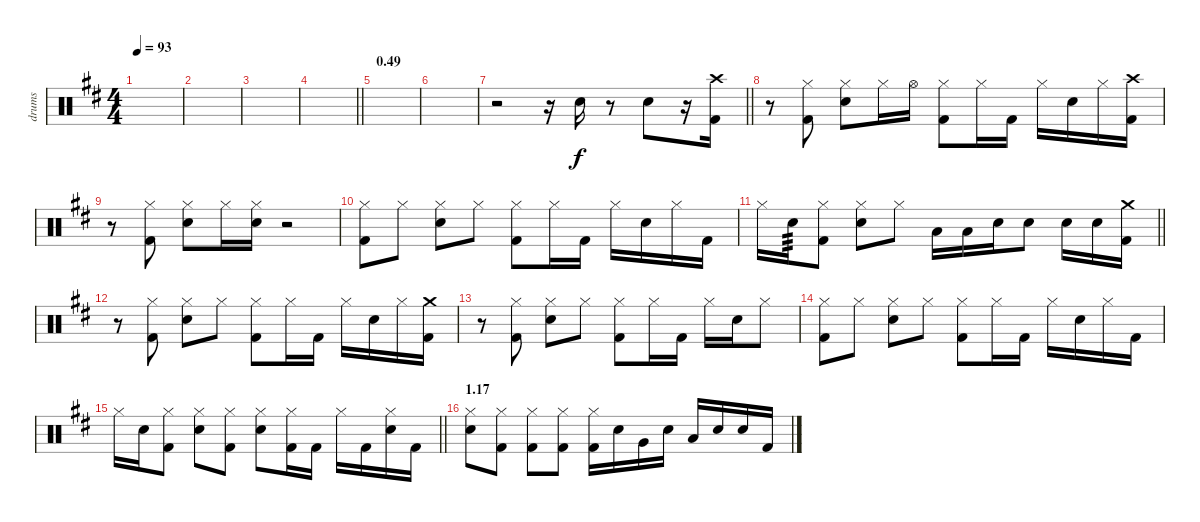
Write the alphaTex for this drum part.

\track ("drums" "drums") {instrument percussion}
\staff {score}
\articulation defaults
\ts (4 4)
\tempo 93
\clef neutral
\ks d
|
|
|
\barLineRight lightlight
|
\section ("" "0.49")
|
|
\barLineRight lightlight
r.2 r.16 "Electric Snare (hit)".16 r.8 "Electric Snare (hit)".8 r.16 ("Crash high (hit)" "Kick (hit) 2").16 |
r.8 ("Hi-Hat (closed)" "Kick (hit) 2").8 ("Hi-Hat (closed)" "Electric Snare (hit)").8 "Hi-Hat (closed)".16 "Hi-Hat (open)".16 ("Hi-Hat (closed)" "Kick (hit) 2").8 "Hi-Hat (closed)".16 "Kick (hit) 2".16 "Hi-Hat (closed)".16 "Electric Snare (hit)".16 "Hi-Hat (closed)".16 ("Crash high (hit)" "Kick (hit) 2").16 |
r.8 ("Hi-Hat (closed)" "Kick (hit) 2").8 ("Hi-Hat (closed)" "Electric Snare (hit)").8 "Hi-Hat (closed)".16 ("Hi-Hat (closed)" "Electric Snare (hit)").16 r.2 |
("Hi-Hat (closed)" "Kick (hit) 2").8 "Hi-Hat (closed)".8 ("Hi-Hat (closed)" "Electric Snare (hit)").8 "Hi-Hat (closed)".8 ("Hi-Hat (closed)" "Kick (hit) 2").8 "Hi-Hat (closed)".16 "Kick (hit) 2".16 "Hi-Hat (closed)".16 "Electric Snare (hit)".16 "Hi-Hat (closed)".16 "Kick (hit) 2".16 |
\barLineRight lightlight "Hi-Hat (closed)".16 "Electric Snare (hit)".16{tp 3}
("Hi-Hat (closed)" "Kick (hit) 2").8 ("Hi-Hat (closed)" "Electric Snare (hit)").8 "Hi-Hat (closed)".8 "Low Tom (hit)".16 "Low Tom (hit)".16 "Electric Snare (hit)".16 "Electric Snare (hit)".8 "Electric Snare (hit)".16 "Electric Snare (hit)".16 ("Crash medium (hit)" "Kick (hit) 2").16 |
r.8 ("Hi-Hat (closed)" "Kick (hit) 2").8 ("Hi-Hat (closed)" "Electric Snare (hit)").8 "Hi-Hat (closed)".8 ("Hi-Hat (closed)" "Kick (hit) 2").8 "Hi-Hat (closed)".16 "Kick (hit) 2".16 "Hi-Hat (closed)".16 "Electric Snare (hit)".16 "Hi-Hat (closed)".16 ("Crash medium (hit)" "Kick (hit) 2").16 |
r.8 ("Hi-Hat (closed)" "Kick (hit) 2").8 ("Hi-Hat (closed)" "Electric Snare (hit)").8 "Hi-Hat (closed)".8 ("Hi-Hat (closed)" "Kick (hit) 2").8 "Hi-Hat (closed)".16 "Kick (hit) 2".16 "Hi-Hat (closed)".16 "Electric Snare (hit)".16 "Hi-Hat (closed)".8 |
("Hi-Hat (closed)" "Kick (hit) 2").8 "Hi-Hat (closed)".8 ("Hi-Hat (closed)" "Electric Snare (hit)").8 "Hi-Hat (closed)".8 ("Hi-Hat (closed)" "Kick (hit) 2").8 "Hi-Hat (closed)".16 "Kick (hit) 2".16 "Hi-Hat (closed)".16 "Electric Snare (hit)".16 "Hi-Hat (closed)".16 "Kick (hit) 2".16 |
\barLineRight lightlight "Hi-Hat (closed)".16 "Electric Snare (hit)".16
("Hi-Hat (closed)" "Kick (hit) 2").8 ("Hi-Hat (closed)" "Electric Snare (hit)").8 ("Hi-Hat (closed)" "Kick (hit) 2").8 ("Hi-Hat (closed)" "Electric Snare (hit)").8 ("Hi-Hat (closed)" "Kick (hit) 2").16 "Kick (hit) 2".16 "Hi-Hat (closed)".16 "Kick (hit) 2".16 ("Hi-Hat (closed)" "Electric Snare (hit)").16 "Kick (hit) 2".16 |
\section ("" "1.17")
("Hi-Hat (closed)" "Electric Snare (hit)").8 ("Hi-Hat (closed)" "Kick (hit) 2").8 ("Hi-Hat (closed)" "Kick (hit) 2").8 ("Hi-Hat (closed)" "Kick (hit) 2").8 ("Hi-Hat (closed)" "Kick (hit) 2").16 "Electric Snare (hit)".16 "Very Low Tom (hit)".16 "Electric Snare (hit)".16 "Low Tom (hit)".16 "Electric Snare (hit)".16 "Electric Snare (hit)".16 "Kick (hit) 2".16
